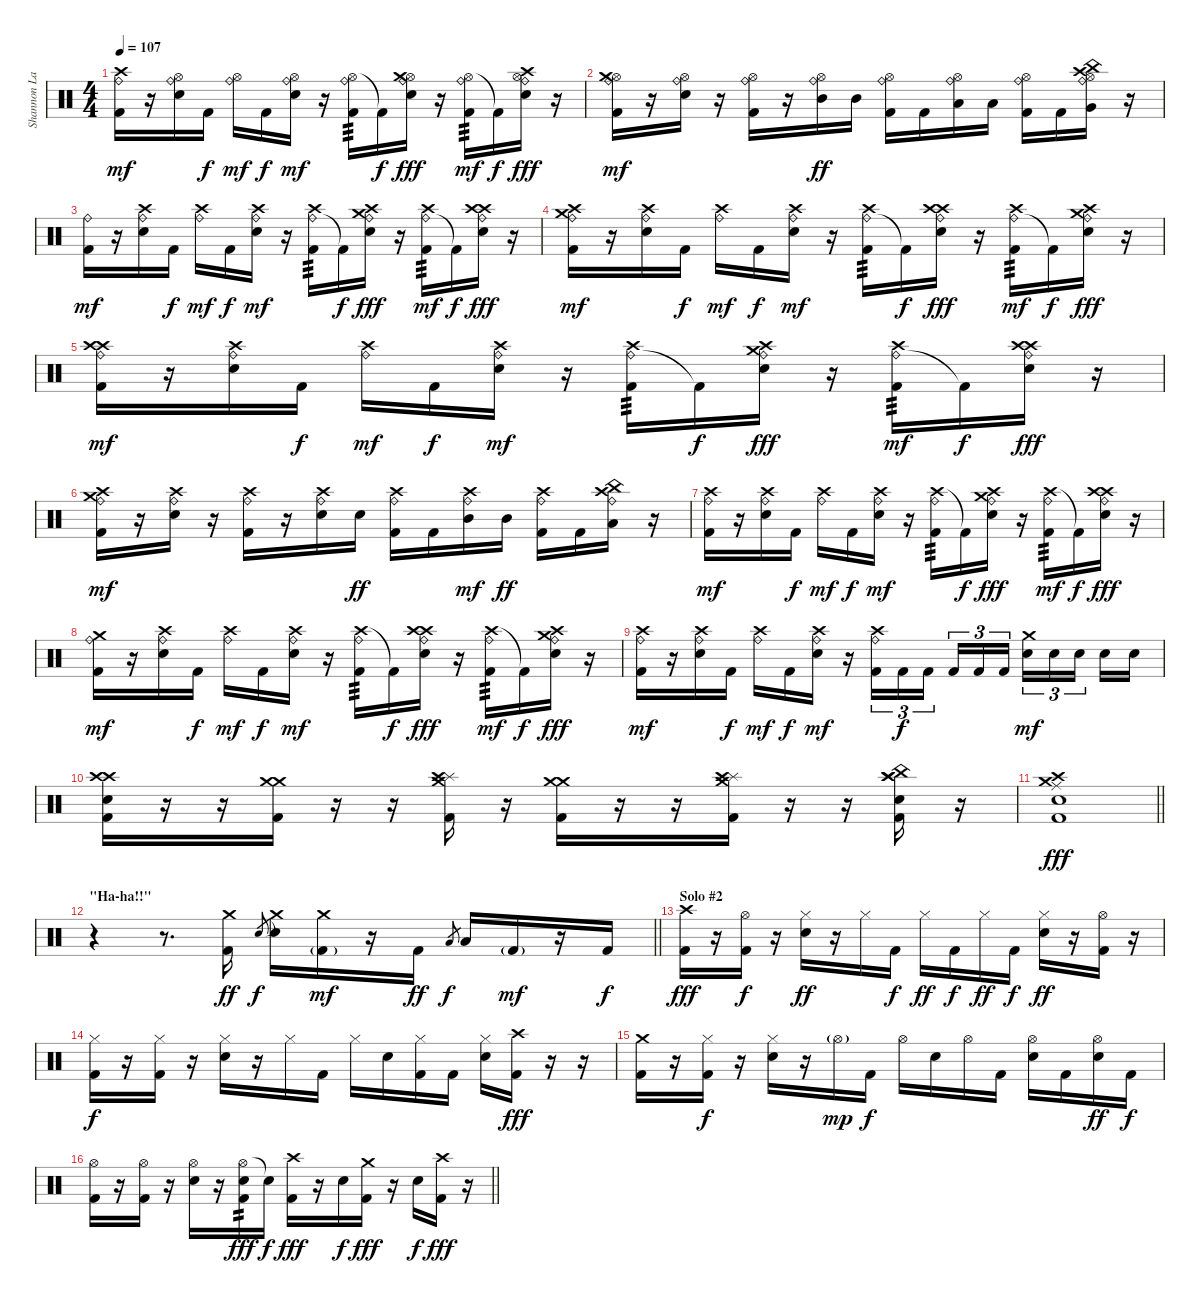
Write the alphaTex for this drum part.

\track ("Shannon Larkin" "Shannon La") {instrument percussion}
\staff {score}
\articulation defaults
\ts (4 4)
\tempo 107
\clef neutral
\ks c
("Crash high (hit)" "Ride (bell)" "Kick (hit) 2").16{dy mf} r.16 ("Hi-Hat (open)" "Ride (bell)" "Electric Snare (hit)").16 "Kick (hit) 2".16{dy f} ("Hi-Hat (open)" "Ride (bell)").16{dy mf} "Kick (hit) 2".16{dy f} ("Hi-Hat (open)" "Ride (bell)" "Electric Snare (hit)").16{dy mf} r.16 ("Hi-Hat (open)" "Ride (bell)" "Kick (hit) 2").16{tp 3} "Kick (hit) 2"{t}.16{dy f} ("Hi-Hat (open)" "Ride (bell)" "Electric Snare (hit)" "Crash medium (hit)").16{dy fff} r.16 ("Hi-Hat (open)" "Ride (bell)" "Kick (hit) 2").16{tp 3 dy mf} "Kick (hit) 2"{t}.16{dy f} ("Hi-Hat (open)" "Ride (bell)" "Electric Snare (hit)" "Crash high (hit)").16{dy fff} r.16 |
("Hi-Hat (open)" "Crash medium (hit)" "Ride (bell)" "Kick (hit) 2").16{dy mf} r.16 ("Hi-Hat (open)" "Ride (bell)" "Electric Snare (hit)").16 r.16 ("Hi-Hat (open)" "Ride (bell)" "Kick (hit) 2").16 r.16 ("Hi-Hat (open)" "Ride (bell)" "Mid Tom (hit)").16{dy ff} "Mid Tom (hit)".16 ("Hi-Hat (open)" "Ride (bell)" "Kick (hit) 2").16 "Kick (hit) 2".16 ("Hi-Hat (open)" "Ride (bell)" "Low Tom (hit)").16 "Low Tom (hit)".16 ("Hi-Hat (open)" "Ride (bell)" "Kick (hit) 2").16 "Kick (hit) 2".16 ("Hi-Hat (open)" "Ride (bell)" "Very Low Tom (hit)" "China (hit)" "Crash high (hit)").16 r.16 |
("Ride (bell)" "Kick (hit) 2").16{dy mf} r.16 ("Ride (bell)" "Electric Snare (hit)" "Crash high (hit)").16 "Kick (hit) 2".16{dy f} ("Ride (bell)" "Crash high (hit)").16{dy mf} "Kick (hit) 2".16{dy f} ("Ride (bell)" "Electric Snare (hit)" "Crash high (hit)").16{dy mf} r.16 ("Ride (bell)" "Crash high (hit)" "Kick (hit) 2").16{tp 3} "Kick (hit) 2"{t}.16{dy f} ("Ride (bell)" "Electric Snare (hit)" "Crash high (hit)" "Crash medium (hit)").16{dy fff} r.16 ("Ride (bell)" "Crash high (hit)" "Kick (hit) 2").16{tp 3 dy mf} "Kick (hit) 2"{t}.16{dy f} ("Ride (bell)" "Electric Snare (hit)" "Crash high (hit)" "Crash high (hit)").16{dy fff} r.16 |
("Crash medium (hit)" "Ride (bell)" "Crash high (hit)" "Kick (hit) 2").16{dy mf} r.16 ("Ride (bell)" "Electric Snare (hit)" "Crash high (hit)").16 "Kick (hit) 2".16{dy f} ("Ride (bell)" "Crash high (hit)").16{dy mf} "Kick (hit) 2".16{dy f} ("Ride (bell)" "Electric Snare (hit)" "Crash high (hit)").16{dy mf} r.16 ("Ride (bell)" "Crash high (hit)" "Kick (hit) 2").16{tp 3} "Kick (hit) 2"{t}.16{dy f} ("Ride (bell)" "Electric Snare (hit)" "Crash high (hit)" "Crash high (hit)").16{dy fff} r.16 ("Ride (bell)" "Crash high (hit)" "Kick (hit) 2").16{tp 3 dy mf} "Kick (hit) 2"{t}.16{dy f} ("Ride (bell)" "Electric Snare (hit)" "Crash high (hit)" "Crash medium (hit)").16{dy fff} r.16 |
("Crash high (hit)" "Ride (bell)" "Crash high (hit)" "Kick (hit) 2").16{dy mf} r.16 ("Ride (bell)" "Electric Snare (hit)" "Crash high (hit)").16 "Kick (hit) 2".16{dy f} ("Ride (bell)" "Crash high (hit)").16{dy mf} "Kick (hit) 2".16{dy f} ("Ride (bell)" "Electric Snare (hit)" "Crash high (hit)").16{dy mf} r.16 ("Ride (bell)" "Crash high (hit)" "Kick (hit) 2").16{tp 3} "Kick (hit) 2"{t}.16{dy f} ("Ride (bell)" "Electric Snare (hit)" "Crash high (hit)" "Crash medium (hit)").16{dy fff} r.16 ("Ride (bell)" "Crash high (hit)" "Kick (hit) 2").16{tp 3 dy mf} "Kick (hit) 2"{t}.16{dy f} ("Ride (bell)" "Electric Snare (hit)" "Crash high (hit)" "Crash high (hit)").16{dy fff} r.16 |
("Crash medium (hit)" "Ride (bell)" "Crash high (hit)" "Kick (hit) 2").16{dy mf} r.16 ("Ride (bell)" "Electric Snare (hit)" "Crash high (hit)").16 r.16 ("Ride (bell)" "Crash high (hit)" "Kick (hit) 2").16 r.16 ("Ride (bell)" "Electric Snare (hit)" "Crash high (hit)").16 "Electric Snare (hit)".16{dy ff} ("Ride (bell)" "Crash high (hit)" "Kick (hit) 2").16 "Kick (hit) 2".16 ("Ride (bell)" "Mid Tom (hit)" "Crash high (hit)").16{dy mf} "Mid Tom (hit)".16{dy ff} ("Ride (bell)" "Crash high (hit)" "Kick (hit) 2").16 "Kick (hit) 2".16 ("Ride (bell)" "Low Tom (hit)" "China (hit)" "Crash high (hit)").16 r.16 |
("Crash high (hit)" "Ride (bell)" "Kick (hit) 2").16{dy mf} r.16 ("Crash high (hit)" "Ride (bell)" "Electric Snare (hit)").16 "Kick (hit) 2".16{dy f} ("Crash high (hit)" "Ride (bell)").16{dy mf} "Kick (hit) 2".16{dy f} ("Crash high (hit)" "Ride (bell)" "Electric Snare (hit)").16{dy mf} r.16 ("Crash high (hit)" "Ride (bell)" "Kick (hit) 2").16{tp 3} "Kick (hit) 2"{t}.16{dy f} ("Crash high (hit)" "Ride (bell)" "Electric Snare (hit)" "Crash medium (hit)").16{dy fff} r.16 ("Crash high (hit)" "Ride (bell)" "Kick (hit) 2").16{tp 3 dy mf} "Kick (hit) 2"{t}.16{dy f} ("Crash high (hit)" "Ride (bell)" "Electric Snare (hit)" "Crash high (hit)").16{dy fff} r.16 |
("Crash medium (hit)" "Ride (bell)" "Kick (hit) 2").16{dy mf} r.16 ("Crash high (hit)" "Ride (bell)" "Electric Snare (hit)").16 "Kick (hit) 2".16{dy f} ("Crash high (hit)" "Ride (bell)").16{dy mf} "Kick (hit) 2".16{dy f} ("Crash high (hit)" "Ride (bell)" "Electric Snare (hit)").16{dy mf} r.16 ("Crash high (hit)" "Ride (bell)" "Kick (hit) 2").16{tp 3} "Kick (hit) 2"{t}.16{dy f} ("Crash high (hit)" "Ride (bell)" "Electric Snare (hit)" "Crash high (hit)").16{dy fff} r.16 ("Crash high (hit)" "Ride (bell)" "Kick (hit) 2").16{tp 3 dy mf} "Kick (hit) 2"{t}.16{dy f} ("Crash high (hit)" "Ride (bell)" "Electric Snare (hit)" "Crash medium (hit)").16{dy fff} r.16 |
("Crash high (hit)" "Ride (bell)" "Kick (hit) 2").16{dy mf} r.16 ("Crash high (hit)" "Ride (bell)" "Electric Snare (hit)").16 "Kick (hit) 2".16{dy f} ("Crash high (hit)" "Ride (bell)").16{dy mf} "Kick (hit) 2".16{dy f} ("Crash high (hit)" "Ride (bell)" "Electric Snare (hit)").16{dy mf} r.16 ("Crash high (hit)" "Ride (bell)" "Kick (hit) 2").16{tu (3 2)} "Kick (hit) 2".16{tu (3 2) dy f} "Kick (hit) 2".16{tu (3 2) beam splitsecondary} "Kick (hit) 2".16{tu (3 2)} "Kick (hit) 2".16{tu (3 2)} "Kick (hit) 2".16{tu (3 2)} ("Crash medium (hit)" "Electric Snare (hit)").16{tu (3 2) dy mf} "Electric Snare (hit)".16{tu (3 2)} "Electric Snare (hit)".16{tu (3 2) beam splitsecondary} "Electric Snare (hit)".16 "Electric Snare (hit)".16 |
("Kick (hit) 2" "Electric Snare (hit)" "Crash high (hit)" "Crash high (hit)").16 r.16 r.16 ("Kick (hit) 2" "Crash medium (hit)" "Crash medium (hit)").16 r.16 r.16 ("Kick (hit) 2" "Crash medium (hit)" "Splash (hit)" "Crash high (hit)").16 r.16 ("Kick (hit) 2" "Crash medium (hit)" "Crash medium (hit)").16 r.16 r.16 ("Kick (hit) 2" "Crash medium (hit)" "Splash (hit)" "Crash high (hit)").16 r.16 r.16 ("Kick (hit) 2" "Electric Snare (hit)" "China (hit)" "Crash high (hit)" "Crash high (hit)").16 r.16 |
\barLineRight lightlight
("Kick (hit) 2" "Ride (middle)" "Crash medium (hit)" "Crash high (hit)" "Electric Snare (hit)").1{dy fff} |
\section ("" "\"Ha-ha!!\"")
\barLineRight lightlight
r.4 r.8{d} ("Crash medium (hit)" "Kick (hit) 2").16{dy ff} "Electric Snare (hit)".8{gr dy f} ("Crash medium (hit)"{t} "Electric Snare (hit)").16 ("Crash medium (hit)" "Kick (hit) 2"{g}).16{dy mf} r.16 "Kick (hit) 2".16{dy ff} "Low Tom (hit)".8{gr dy f} "Low Tom (hit)".16 "Kick (hit) 2"{g}.16{dy mf} r.16 "Kick (hit) 2".16{dy f} |
\section ("" "Solo #2")
("Crash high (hit)" "Kick (hit) 2").16{dy fff} r.16 ("Hi-Hat (open)" "Kick (hit) 2").16{dy f} r.16 ("Hi-Hat (closed)" "Electric Snare (hit)").16{dy ff} r.16 "Hi-Hat (closed)".16 "Kick (hit) 2".16{dy f} "Hi-Hat (closed)".16{dy ff} "Kick (hit) 2".16{dy f} "Hi-Hat (closed)".16{dy ff} "Kick (hit) 2".16{dy f} ("Hi-Hat (closed)" "Electric Snare (hit)").16{dy ff} r.16 ("Hi-Hat (open)" "Kick (hit) 2").16 r.16 |
("Hi-Hat (closed)" "Kick (hit) 2").16{dy f} r.16 ("Hi-Hat (closed)" "Kick (hit) 2").16 r.16 ("Hi-Hat (closed)" "Electric Snare (hit)").16 r.16 "Hi-Hat (closed)".16 "Kick (hit) 2".16 "Hi-Hat (closed)".16 "Electric Snare (hit)".16 ("Hi-Hat (closed)" "Kick (hit) 2").16 "Kick (hit) 2".16 ("Hi-Hat (closed)" "Electric Snare (hit)").16 ("Crash high (hit)" "Kick (hit) 2").16{dy fff} r.16 r.16 |
("Crash medium (hit)" "Kick (hit) 2").16 r.16 ("Hi-Hat (closed)" "Kick (hit) 2").16{dy f} r.16 ("Hi-Hat (closed)" "Electric Snare (hit)").16 r.16 "Hi-Hat (open)"{g}.16{dy mp} "Kick (hit) 2".16{dy f} "Hi-Hat (open)".16 "Electric Snare (hit)".16 "Hi-Hat (open)".16 "Kick (hit) 2".16 ("Hi-Hat (open)" "Electric Snare (hit)").16 "Kick (hit) 2".16 ("Hi-Hat (open)" "Electric Snare (hit)").16{dy ff} "Kick (hit) 2".16{dy f} |
\barLineRight lightlight
("Hi-Hat (open)" "Kick (hit) 2").16 r.16 ("Hi-Hat (open)" "Kick (hit) 2").16 r.16 ("Hi-Hat (open)" "Electric Snare (hit)").16 r.16 ("Hi-Hat (open)" "Electric Snare (hit)" "Kick (hit) 2").16{tp 2 dy fff} "Electric Snare (hit)"{t}.16{dy f} ("Crash high (hit)" "Kick (hit) 2").16{dy fff} r.16 "Electric Snare (hit)".16{dy f} ("Crash medium (hit)" "Kick (hit) 2").16{dy fff} r.16 "Electric Snare (hit)".16{dy f} ("Crash high (hit)" "Kick (hit) 2").16{dy fff} r.16
